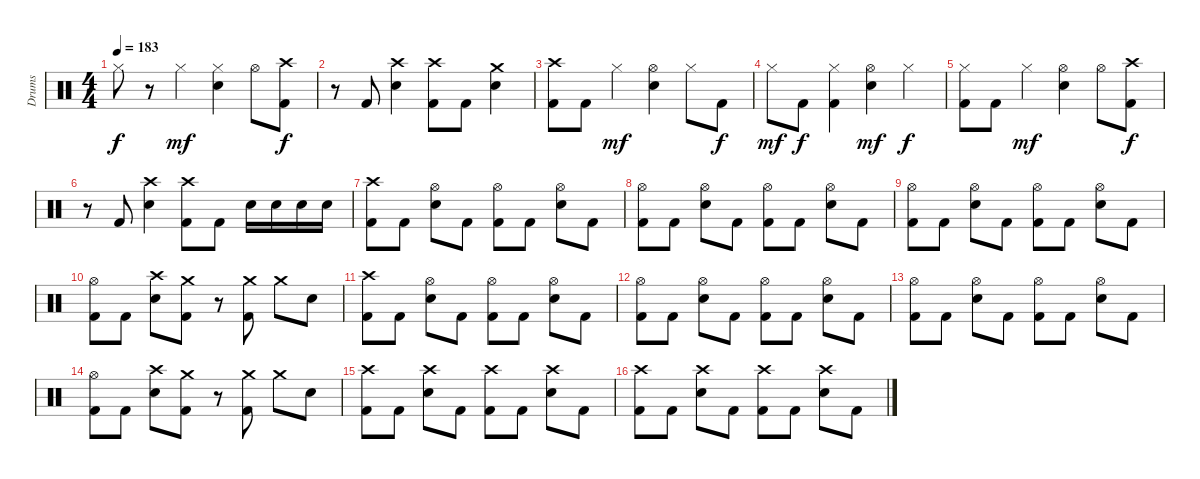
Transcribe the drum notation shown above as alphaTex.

\track ("Drums" "Drums") {instrument percussion}
\staff {score}
\articulation defaults
\ts (4 4)
\tempo 183
\clef neutral
\ks c "Hi-Hat (closed)".8{dy f}
r.8 "Hi-Hat (closed)".4{dy mf} ("Hi-Hat (closed)" "Snare (hit) 2").4 "Hi-Hat (open)".8 ("Crash high (hit)" "Kick (hit) 2").8{dy f} |
r.8 "Kick (hit) 2".8 ("Crash high (hit)" "Snare (hit) 2").4 ("Crash high (hit)" "Kick (hit) 2").8 "Kick (hit) 2".8 ("Crash medium (hit)" "Snare (hit) 2").4 |
("Crash high (hit)" "Kick (hit) 2").8 "Kick (hit) 2".8 "Hi-Hat (closed)".4{dy mf} ("Hi-Hat (open)" "Snare (hit) 2").4 "Hi-Hat (closed)".8 "Kick (hit) 2".8{dy f} |
"Hi-Hat (closed)".8{dy mf} "Kick (hit) 2".8{dy f} ("Hi-Hat (closed)" "Kick (hit) 2").4 ("Hi-Hat (open)" "Snare (hit) 2").4{dy mf} "Hi-Hat (closed)".4{dy f} |
("Hi-Hat (closed)" "Kick (hit) 2").8 "Kick (hit) 2".8 "Hi-Hat (closed)".4{dy mf} ("Hi-Hat (open)" "Snare (hit) 2").4 "Hi-Hat (open)".8 ("Crash high (hit)" "Kick (hit) 2").8{dy f} |
r.8 "Kick (hit) 2".8 ("Crash high (hit)" "Snare (hit) 2").4 ("Crash high (hit)" "Kick (hit) 2").8 "Kick (hit) 2".8 "Snare (hit) 2".16 "Snare (hit) 2".16 "Snare (hit) 2".16 "Snare (hit) 2".16 |
("Crash high (hit)" "Kick (hit) 2").8 "Kick (hit) 2".8 ("Hi-Hat (open)" "Snare (hit) 2").8 "Kick (hit) 2".8 ("Hi-Hat (open)" "Kick (hit) 2").8 "Kick (hit) 2".8 ("Hi-Hat (open)" "Snare (hit) 2").8 "Kick (hit) 2".8 |
("Hi-Hat (open)" "Kick (hit) 2").8 "Kick (hit) 2".8 ("Hi-Hat (open)" "Snare (hit) 2").8 "Kick (hit) 2".8 ("Hi-Hat (open)" "Kick (hit) 2").8 "Kick (hit) 2".8 ("Hi-Hat (open)" "Snare (hit) 2").8 "Kick (hit) 2".8 |
("Hi-Hat (open)" "Kick (hit) 2").8 "Kick (hit) 2".8 ("Hi-Hat (open)" "Snare (hit) 2").8 "Kick (hit) 2".8 ("Hi-Hat (open)" "Kick (hit) 2").8 "Kick (hit) 2".8 ("Hi-Hat (open)" "Snare (hit) 2").8 "Kick (hit) 2".8 |
("Hi-Hat (open)" "Kick (hit) 2").8 "Kick (hit) 2".8 ("Crash high (hit)" "Snare (hit) 2").8 ("Crash medium (hit)" "Kick (hit) 2").8 r.8 ("Crash medium (hit)" "Kick (hit) 2").8 "Crash medium (hit)".8 "Snare (hit) 2".8 |
("Crash high (hit)" "Kick (hit) 2").8 "Kick (hit) 2".8 ("Hi-Hat (open)" "Snare (hit) 2").8 "Kick (hit) 2".8 ("Hi-Hat (open)" "Kick (hit) 2").8 "Kick (hit) 2".8 ("Hi-Hat (open)" "Snare (hit) 2").8 "Kick (hit) 2".8 |
("Hi-Hat (open)" "Kick (hit) 2").8 "Kick (hit) 2".8 ("Hi-Hat (open)" "Snare (hit) 2").8 "Kick (hit) 2".8 ("Hi-Hat (open)" "Kick (hit) 2").8 "Kick (hit) 2".8 ("Hi-Hat (open)" "Snare (hit) 2").8 "Kick (hit) 2".8 |
("Hi-Hat (open)" "Kick (hit) 2").8 "Kick (hit) 2".8 ("Hi-Hat (open)" "Snare (hit) 2").8 "Kick (hit) 2".8 ("Hi-Hat (open)" "Kick (hit) 2").8 "Kick (hit) 2".8 ("Hi-Hat (open)" "Snare (hit) 2").8 "Kick (hit) 2".8 |
("Hi-Hat (open)" "Kick (hit) 2").8 "Kick (hit) 2".8 ("Crash high (hit)" "Snare (hit) 2").8 ("Crash medium (hit)" "Kick (hit) 2").8 r.8 ("Crash medium (hit)" "Kick (hit) 2").8 "Crash medium (hit)".8 "Snare (hit) 2".8 |
("Crash high (hit)" "Kick (hit) 2").8 "Kick (hit) 2".8 ("Crash high (hit)" "Snare (hit) 2").8 "Kick (hit) 2".8 ("Crash high (hit)" "Kick (hit) 2").8 "Kick (hit) 2".8 ("Crash high (hit)" "Snare (hit) 2").8 "Kick (hit) 2".8 |
("Crash high (hit)" "Kick (hit) 2").8 "Kick (hit) 2".8 ("Crash high (hit)" "Snare (hit) 2").8 "Kick (hit) 2".8 ("Crash high (hit)" "Kick (hit) 2").8 "Kick (hit) 2".8 ("Crash high (hit)" "Snare (hit) 2").8 "Kick (hit) 2".8
